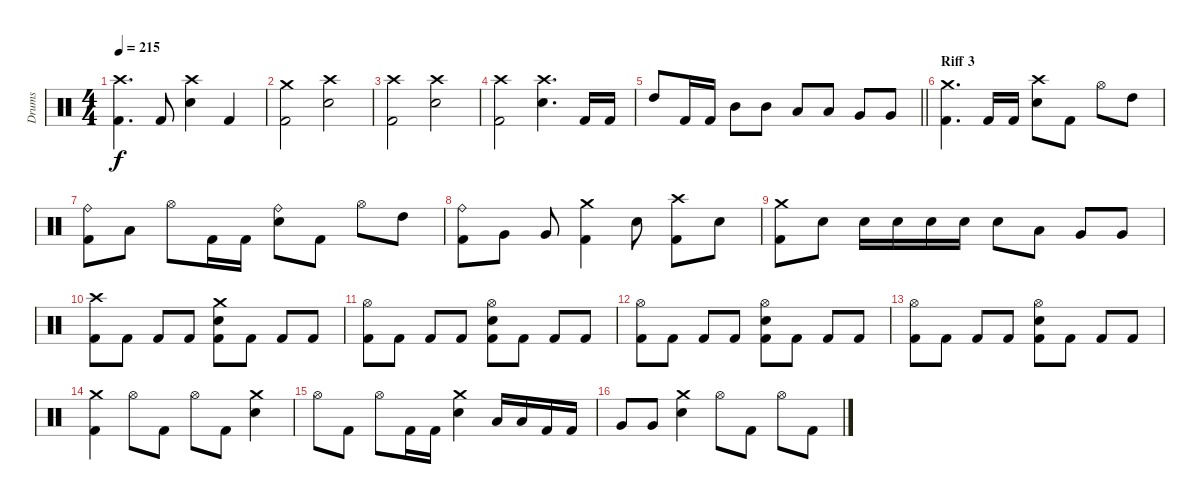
\track ("Drums" "Drums") {instrument percussion}
\staff {score}
\articulation defaults
\ts (4 4)
\tempo 215
\clef neutral
\ks c
("Kick (hit) 2" "Crash high (hit)").4{d dy f} "Kick (hit) 2".8 ("Electric Snare (hit)" "Crash high (hit)").4 "Kick (hit) 2".4 |
("Kick (hit) 2" "Crash medium (hit)").2 ("Electric Snare (hit)" "Crash high (hit)").2 |
("Kick (hit) 2" "Crash high (hit)").2 ("Electric Snare (hit)" "Crash high (hit)").2 |
("Kick (hit) 2" "Crash high (hit)").2 ("Electric Snare (hit)" "Crash high (hit)").4{d} "Kick (hit) 2".16 "Kick (hit) 2".16 |
\barLineRight lightlight "High Tom (hit)".8 "Kick (hit) 2".16 "Kick (hit) 2".16 "Mid Tom (hit)".8 "Mid Tom (hit)".8 "Low Tom (hit)".8 "Low Tom (hit)".8 "Very Low Tom (hit)".8 "Very Low Tom (hit)".8
|
\section ("" "Riff 3")
("Crash medium (hit)" "Kick (hit) 2").4{d} "Kick (hit) 2".16 "Kick (hit) 2".16 ("Electric Snare (hit)" "Crash high (hit)").8 "Kick (hit) 2".8 "Hi-Hat (open)".8 "High Tom (hit)".8 |
("Kick (hit) 2" "Ride (bell)").8 "Low Tom (hit)".8 "Hi-Hat (open)".8 "Kick (hit) 2".16 "Kick (hit) 2".16 ("Electric Snare (hit)" "Ride (bell)").8 "Kick (hit) 2".8 "Hi-Hat (open)".8 "High Tom (hit)".8 |
("Ride (bell)" "Kick (hit) 2").8 "Very Low Tom (hit)".8 "Very Low Tom (hit)".8 ("Crash medium (hit)" "Kick (hit) 2").4 "Electric Snare (hit)".8 ("Crash high (hit)" "Kick (hit) 2").8 "Electric Snare (hit)".8 |
("Kick (hit) 2" "Crash medium (hit)").8 "Electric Snare (hit)".8 "Electric Snare (hit)".16 "Electric Snare (hit)".16 "Electric Snare (hit)".16 "Electric Snare (hit)".16 "Electric Snare (hit)".8 "Low Tom (hit)".8 "Very Low Tom (hit)".8 "Very Low Tom (hit)".8 |
("Kick (hit) 2" "Crash high (hit)").8 "Kick (hit) 2".8 "Kick (hit) 2".8 "Kick (hit) 2".8 ("Kick (hit) 2" "Electric Snare (hit)" "Crash medium (hit)").8 "Kick (hit) 2".8 "Kick (hit) 2".8 "Kick (hit) 2".8 |
("Kick (hit) 2" "Hi-Hat (open)").8 "Kick (hit) 2".8 "Kick (hit) 2".8 "Kick (hit) 2".8 ("Kick (hit) 2" "Electric Snare (hit)" "Hi-Hat (open)").8 "Kick (hit) 2".8 "Kick (hit) 2".8 "Kick (hit) 2".8 |
("Kick (hit) 2" "Hi-Hat (open)").8 "Kick (hit) 2".8 "Kick (hit) 2".8 "Kick (hit) 2".8 ("Kick (hit) 2" "Electric Snare (hit)" "Hi-Hat (open)").8 "Kick (hit) 2".8 "Kick (hit) 2".8 "Kick (hit) 2".8 |
("Kick (hit) 2" "Hi-Hat (open)").8 "Kick (hit) 2".8 "Kick (hit) 2".8 "Kick (hit) 2".8 ("Kick (hit) 2" "Electric Snare (hit)" "Hi-Hat (open)").8 "Kick (hit) 2".8 "Kick (hit) 2".8 "Kick (hit) 2".8 |
("Crash medium (hit)" "Kick (hit) 2").4 "Hi-Hat (open)".8 "Kick (hit) 2".8 "Hi-Hat (open)".8 "Kick (hit) 2".8 ("Electric Snare (hit)" "Crash medium (hit)").4 |
"Hi-Hat (open)".8 "Kick (hit) 2".8 "Hi-Hat (open)".8 "Kick (hit) 2".16 "Kick (hit) 2".16 ("Crash medium (hit)" "Electric Snare (hit)").4 "Low Tom (hit)".16 "Low Tom (hit)".16 "Kick (hit) 2".16 "Kick (hit) 2".16 |
"Very Low Tom (hit)".8 "Very Low Tom (hit)".8 ("Crash medium (hit)" "Electric Snare (hit)").4 "Hi-Hat (open)".8 "Kick (hit) 2".8 "Hi-Hat (open)".8 "Kick (hit) 2".8
